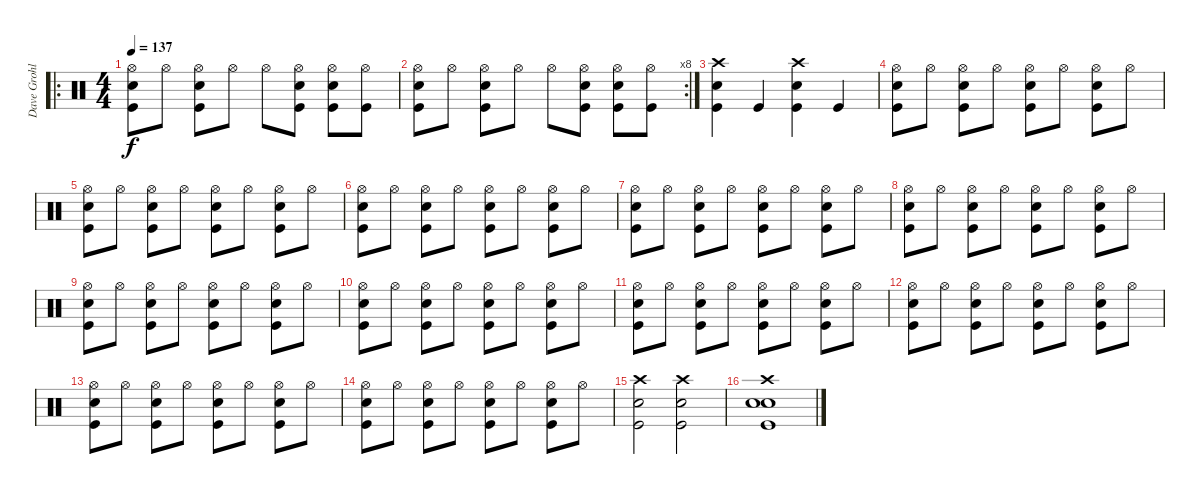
\track ("Dave Grohl" "Dave Grohl") {instrument percussion}
\staff {score}
\articulation defaults
\ro
\ts (4 4)
\tempo 137
\clef neutral
\ks c
("Snare (hit) 2" "Hi-Hat (open)" "Kick (hit)").8{dy f} "Hi-Hat (open)".8 ("Electric Snare (hit)" "Hi-Hat (open)" "Kick (hit)").8 "Hi-Hat (open)".8 "Hi-Hat (open)".8 ("Electric Snare (hit)" "Hi-Hat (open)" "Kick (hit)").8 ("Electric Snare (hit)" "Hi-Hat (open)" "Kick (hit)").8 ("Hi-Hat (open)" "Kick (hit)").8 |
\rc 8
("Snare (hit) 2" "Hi-Hat (open)" "Kick (hit)").8 "Hi-Hat (open)".8 ("Electric Snare (hit)" "Hi-Hat (open)" "Kick (hit)").8 "Hi-Hat (open)".8 "Hi-Hat (open)".8 ("Electric Snare (hit)" "Hi-Hat (open)" "Kick (hit)").8 ("Electric Snare (hit)" "Hi-Hat (open)" "Kick (hit)").8 ("Hi-Hat (open)" "Kick (hit)").8 |
("Electric Snare (hit)" "Kick (hit)" "Crash high (hit)").4 "Kick (hit)".4 ("Electric Snare (hit)" "Kick (hit)" "Crash high (hit)").4 "Kick (hit)".4 |
("Electric Snare (hit)" "Kick (hit)" "Hi-Hat (open)").8 "Hi-Hat (open)".8 ("Electric Snare (hit)" "Kick (hit)" "Hi-Hat (open)").8 "Hi-Hat (open)".8 ("Electric Snare (hit)" "Kick (hit)" "Hi-Hat (open)").8 "Hi-Hat (open)".8 ("Electric Snare (hit)" "Kick (hit)" "Hi-Hat (open)").8 "Hi-Hat (open)".8 |
("Electric Snare (hit)" "Kick (hit)" "Hi-Hat (open)").8 "Hi-Hat (open)".8 ("Electric Snare (hit)" "Kick (hit)" "Hi-Hat (open)").8 "Hi-Hat (open)".8 ("Electric Snare (hit)" "Kick (hit)" "Hi-Hat (open)").8 "Hi-Hat (open)".8 ("Electric Snare (hit)" "Kick (hit)" "Hi-Hat (open)").8 "Hi-Hat (open)".8 |
("Electric Snare (hit)" "Kick (hit)" "Hi-Hat (open)").8 "Hi-Hat (open)".8 ("Electric Snare (hit)" "Kick (hit)" "Hi-Hat (open)").8 "Hi-Hat (open)".8 ("Electric Snare (hit)" "Kick (hit)" "Hi-Hat (open)").8 "Hi-Hat (open)".8 ("Electric Snare (hit)" "Kick (hit)" "Hi-Hat (open)").8 "Hi-Hat (open)".8 |
("Electric Snare (hit)" "Kick (hit)" "Hi-Hat (open)").8 "Hi-Hat (open)".8 ("Electric Snare (hit)" "Kick (hit)" "Hi-Hat (open)").8 "Hi-Hat (open)".8 ("Electric Snare (hit)" "Kick (hit)" "Hi-Hat (open)").8 "Hi-Hat (open)".8 ("Electric Snare (hit)" "Kick (hit)" "Hi-Hat (open)").8 "Hi-Hat (open)".8 |
("Electric Snare (hit)" "Kick (hit)" "Hi-Hat (open)").8 "Hi-Hat (open)".8 ("Electric Snare (hit)" "Kick (hit)" "Hi-Hat (open)").8 "Hi-Hat (open)".8 ("Electric Snare (hit)" "Kick (hit)" "Hi-Hat (open)").8 "Hi-Hat (open)".8 ("Electric Snare (hit)" "Kick (hit)" "Hi-Hat (open)").8 "Hi-Hat (open)".8 |
("Electric Snare (hit)" "Kick (hit)" "Hi-Hat (open)").8 "Hi-Hat (open)".8 ("Electric Snare (hit)" "Kick (hit)" "Hi-Hat (open)").8 "Hi-Hat (open)".8 ("Electric Snare (hit)" "Kick (hit)" "Hi-Hat (open)").8 "Hi-Hat (open)".8 ("Electric Snare (hit)" "Kick (hit)" "Hi-Hat (open)").8 "Hi-Hat (open)".8 |
("Electric Snare (hit)" "Kick (hit)" "Hi-Hat (open)").8 "Hi-Hat (open)".8 ("Electric Snare (hit)" "Kick (hit)" "Hi-Hat (open)").8 "Hi-Hat (open)".8 ("Electric Snare (hit)" "Kick (hit)" "Hi-Hat (open)").8 "Hi-Hat (open)".8 ("Electric Snare (hit)" "Kick (hit)" "Hi-Hat (open)").8 "Hi-Hat (open)".8 |
("Electric Snare (hit)" "Kick (hit)" "Hi-Hat (open)").8 "Hi-Hat (open)".8 ("Electric Snare (hit)" "Kick (hit)" "Hi-Hat (open)").8 "Hi-Hat (open)".8 ("Electric Snare (hit)" "Kick (hit)" "Hi-Hat (open)").8 "Hi-Hat (open)".8 ("Electric Snare (hit)" "Kick (hit)" "Hi-Hat (open)").8 "Hi-Hat (open)".8 |
("Electric Snare (hit)" "Kick (hit)" "Hi-Hat (open)").8 "Hi-Hat (open)".8 ("Electric Snare (hit)" "Kick (hit)" "Hi-Hat (open)").8 "Hi-Hat (open)".8 ("Electric Snare (hit)" "Kick (hit)" "Hi-Hat (open)").8 "Hi-Hat (open)".8 ("Electric Snare (hit)" "Kick (hit)" "Hi-Hat (open)").8 "Hi-Hat (open)".8 |
("Electric Snare (hit)" "Kick (hit)" "Hi-Hat (open)").8 "Hi-Hat (open)".8 ("Electric Snare (hit)" "Kick (hit)" "Hi-Hat (open)").8 "Hi-Hat (open)".8 ("Electric Snare (hit)" "Kick (hit)" "Hi-Hat (open)").8 "Hi-Hat (open)".8 ("Electric Snare (hit)" "Kick (hit)" "Hi-Hat (open)").8 "Hi-Hat (open)".8 |
("Electric Snare (hit)" "Kick (hit)" "Hi-Hat (open)").8 "Hi-Hat (open)".8 ("Electric Snare (hit)" "Kick (hit)" "Hi-Hat (open)").8 "Hi-Hat (open)".8 ("Electric Snare (hit)" "Kick (hit)" "Hi-Hat (open)").8 "Hi-Hat (open)".8 ("Electric Snare (hit)" "Kick (hit)" "Hi-Hat (open)").8 "Hi-Hat (open)".8 |
("Electric Snare (hit)" "Crash high (hit)" "Kick (hit)").2 ("Electric Snare (hit)" "Crash high (hit)" "Kick (hit)").2 |
("Electric Snare (hit)" "Crash high (hit)" "Snare (hit) 2" "Kick (hit)").1
